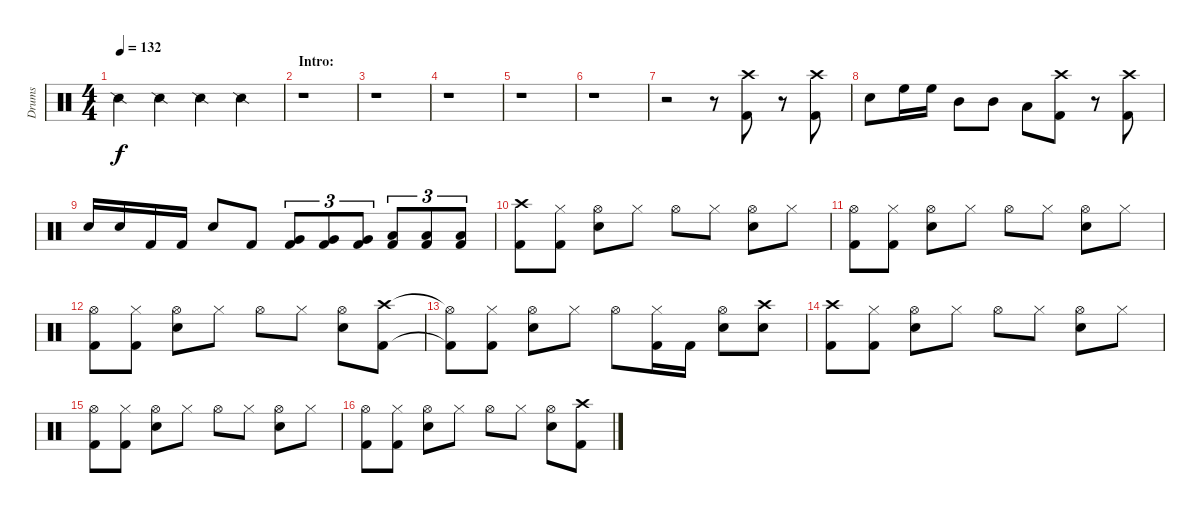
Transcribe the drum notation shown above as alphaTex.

\track ("Drums" "Drums") {instrument percussion}
\staff {score}
\articulation defaults
\ts (4 4)
\tempo 132
\clef neutral
\ks c "Snare (side stick) 2".4{dy f} "Snare (side stick) 2".4 "Snare (side stick) 2".4 "Snare (side stick) 2".4
|
\section ("" "Intro:")
r.1 |
r.1 |
r.1 |
r.1 |
r.1 |
r.2 r.8 ("Crash high (hit)" "Kick (hit) 2").8 r.8 ("Crash high (hit)" "Kick (hit) 2").8 |
"Electric Snare (hit)".8 "High Floor Tom (hit)".16 "High Floor Tom (hit)".16 "Mid Tom (hit)".8 "Mid Tom (hit)".8 "Low Tom (hit)".8 ("Crash high (hit)" "Kick (hit) 2").8 r.8 ("Crash high (hit)" "Kick (hit) 2").8 |
"Electric Snare (hit)".16 "Electric Snare (hit)".16 "Kick (hit) 2".16 "Kick (hit) 2".16 "Electric Snare (hit)".8 "Kick (hit) 2".8 ("Very Low Tom (hit)" "Kick (hit) 2").8{tu (3 2)} ("Very Low Tom (hit)" "Kick (hit) 2").8{tu (3 2)} ("Very Low Tom (hit)" "Kick (hit) 2").8{tu (3 2)} ("Low Floor Tom (hit)" "Kick (hit) 2").8{tu (3 2)} ("Low Floor Tom (hit)" "Kick (hit) 2").8{tu (3 2)} ("Low Floor Tom (hit)" "Kick (hit) 2").8{tu (3 2)} |
("Crash high (hit)" "Kick (hit) 2").8 ("Hi-Hat (closed)" "Kick (hit) 2").8 ("Hi-Hat (open)" "Electric Snare (hit)").8 "Hi-Hat (closed)".8 "Hi-Hat (open)".8 "Hi-Hat (closed)".8 ("Hi-Hat (open)" "Electric Snare (hit)").8 "Hi-Hat (closed)".8 |
("Hi-Hat (open)" "Kick (hit) 2").8 ("Hi-Hat (closed)" "Kick (hit) 2").8 ("Hi-Hat (open)" "Electric Snare (hit)").8 "Hi-Hat (closed)".8 "Hi-Hat (open)".8 "Hi-Hat (closed)".8 ("Hi-Hat (open)" "Electric Snare (hit)").8 "Hi-Hat (closed)".8 |
("Hi-Hat (open)" "Kick (hit) 2").8 ("Hi-Hat (closed)" "Kick (hit) 2").8 ("Hi-Hat (open)" "Electric Snare (hit)").8 "Hi-Hat (closed)".8 "Hi-Hat (open)".8 "Hi-Hat (closed)".8 ("Hi-Hat (open)" "Electric Snare (hit)").8 ("Crash high (hit)" "Kick (hit) 2").8 |
("Hi-Hat (open)"{t} "Kick (hit) 2"{t}).8 ("Hi-Hat (closed)" "Kick (hit) 2").8 ("Hi-Hat (open)" "Electric Snare (hit)").8 "Hi-Hat (closed)".8 "Hi-Hat (open)".8 ("Hi-Hat (closed)" "Kick (hit) 2").16 "Kick (hit) 2".16 ("Hi-Hat (open)" "Electric Snare (hit)").8 ("Crash high (hit)" "Electric Snare (hit)").8 |
("Crash high (hit)" "Kick (hit) 2").8 ("Hi-Hat (closed)" "Kick (hit) 2").8 ("Hi-Hat (open)" "Electric Snare (hit)").8 "Hi-Hat (closed)".8 "Hi-Hat (open)".8 "Hi-Hat (closed)".8 ("Hi-Hat (open)" "Electric Snare (hit)").8 "Hi-Hat (closed)".8 |
("Hi-Hat (open)" "Kick (hit) 2").8 ("Hi-Hat (closed)" "Kick (hit) 2").8 ("Hi-Hat (open)" "Electric Snare (hit)").8 "Hi-Hat (closed)".8 "Hi-Hat (open)".8 "Hi-Hat (closed)".8 ("Hi-Hat (open)" "Electric Snare (hit)").8 "Hi-Hat (closed)".8 |
("Hi-Hat (open)" "Kick (hit) 2").8 ("Hi-Hat (closed)" "Kick (hit) 2").8 ("Hi-Hat (open)" "Electric Snare (hit)").8 "Hi-Hat (closed)".8 "Hi-Hat (open)".8 "Hi-Hat (closed)".8 ("Hi-Hat (open)" "Electric Snare (hit)").8 ("Crash high (hit)" "Kick (hit) 2").8
